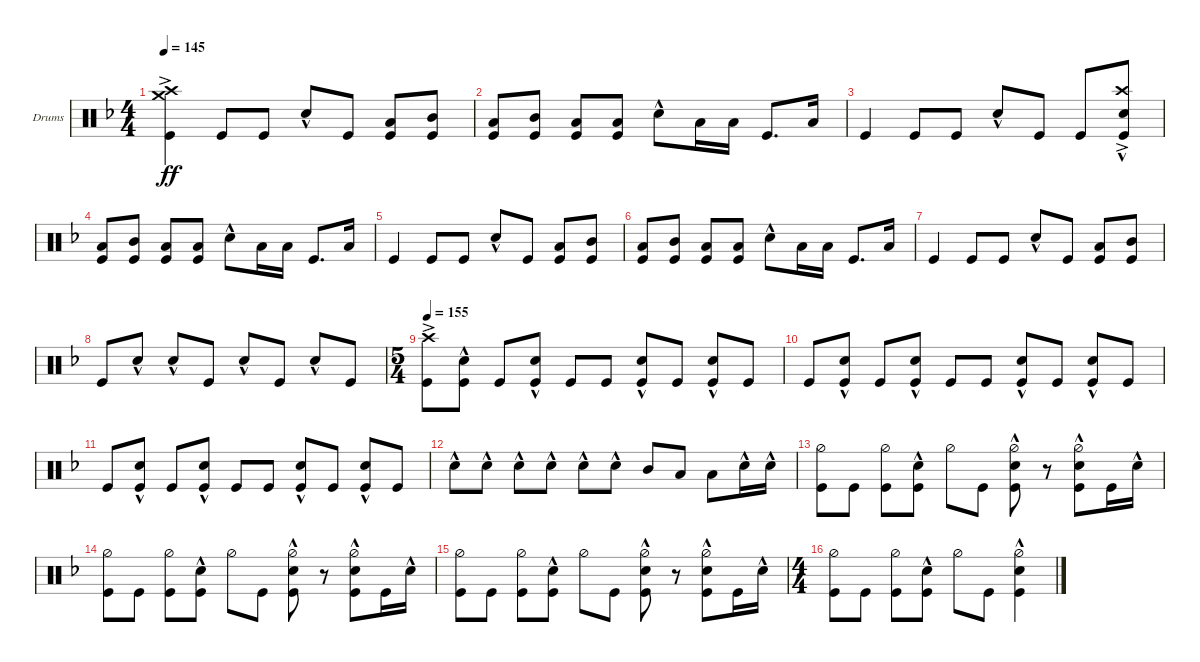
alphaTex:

\defaultSystemsLayout 4
\bracketExtendMode groupsimilarinstruments
\firstSystemTrackNameOrientation horizontal
\otherSystemsTrackNameOrientation horizontal
\track ("Drumkit" "Drums") {instrument percussion}
\staff {score}
\articulation defaults
\ts (4 4)
\section ("" "")
\tempo 145
\clef neutral
\ks f
("Kick (hit)" "Crash high (hit)"{ac} "Crash medium (hit)"{ac}).4{dy ff} "Kick (hit)".8 "Kick (hit)".8 "Snare (hit) 2"{hac}.8 "Kick (hit)".8 ("Kick (hit)" "Low Tom (hit)").8 ("Kick (hit)" "Mid Tom (hit)").8 |
("Kick (hit)" "Low Tom (hit)").8 ("Kick (hit)" "Mid Tom (hit)").8 ("Kick (hit)" "Low Tom (hit)").8 ("Kick (hit)" "Low Tom (hit)").8 "Snare (hit) 2"{hac}.8 "Low Tom (hit)".16 "Low Tom (hit)".16 "Kick (hit)".8{d} "Low Tom (hit)".16 |
"Kick (hit)".4 "Kick (hit)".8 "Kick (hit)".8 "Snare (hit) 2"{hac}.8 "Kick (hit)".8 "Kick (hit)".8 ("Kick (hit)" "Crash high (hit)"{ac} "Snare (hit) 2"{hac}).8 |
("Kick (hit)" "Low Tom (hit)").8 ("Kick (hit)" "Mid Tom (hit)").8 ("Kick (hit)" "Low Tom (hit)").8 ("Kick (hit)" "Low Tom (hit)").8 "Snare (hit) 2"{hac}.8 "Low Tom (hit)".16 "Low Tom (hit)".16 "Kick (hit)".8{d} "Low Tom (hit)".16 |
"Kick (hit)".4 "Kick (hit)".8 "Kick (hit)".8 "Snare (hit) 2"{hac}.8 "Kick (hit)".8 ("Kick (hit)" "Low Tom (hit)").8 ("Kick (hit)" "Mid Tom (hit)").8 |
("Kick (hit)" "Low Tom (hit)").8 ("Kick (hit)" "Mid Tom (hit)").8 ("Kick (hit)" "Low Tom (hit)").8 ("Kick (hit)" "Low Tom (hit)").8 "Snare (hit) 2"{hac}.8 "Low Tom (hit)".16 "Low Tom (hit)".16 "Kick (hit)".8{d} "Low Tom (hit)".16 |
"Kick (hit)".4 "Kick (hit)".8 "Kick (hit)".8 "Snare (hit) 2"{hac}.8 "Kick (hit)".8 ("Kick (hit)" "Low Tom (hit)").8 ("Kick (hit)" "Mid Tom (hit)").8 |
"Kick (hit)".8 "Snare (hit) 2"{hac}.8 "Snare (hit) 2"{hac}.8 "Kick (hit)".8 "Snare (hit) 2"{hac}.8 "Kick (hit)".8 "Snare (hit) 2"{hac}.8 "Kick (hit)".8 |
\ts (5 4)
\tempo 155
("Kick (hit)" "Crash high (hit)"{ac}).8 ("Kick (hit)" "Snare (hit) 2"{hac}).8 "Kick (hit)".8 ("Kick (hit)" "Snare (hit) 2"{hac}).8 "Kick (hit)".8 "Kick (hit)".8 ("Kick (hit)" "Snare (hit) 2"{hac}).8 "Kick (hit)".8 ("Kick (hit)" "Snare (hit) 2"{hac}).8 "Kick (hit)".8 |
"Kick (hit)".8 ("Kick (hit)" "Snare (hit) 2"{hac}).8 "Kick (hit)".8 ("Kick (hit)" "Snare (hit) 2"{hac}).8 "Kick (hit)".8 "Kick (hit)".8 ("Kick (hit)" "Snare (hit) 2"{hac}).8 "Kick (hit)".8 ("Kick (hit)" "Snare (hit) 2"{hac}).8 "Kick (hit)".8 |
"Kick (hit)".8 ("Kick (hit)" "Snare (hit) 2"{hac}).8 "Kick (hit)".8 ("Kick (hit)" "Snare (hit) 2"{hac}).8 "Kick (hit)".8 "Kick (hit)".8 ("Kick (hit)" "Snare (hit) 2"{hac}).8 "Kick (hit)".8 ("Kick (hit)" "Snare (hit) 2"{hac}).8 "Kick (hit)".8 |
"Snare (hit) 2"{hac}.8 "Snare (hit) 2"{hac}.8 "Snare (hit) 2"{hac}.8 "Snare (hit) 2"{hac}.8 "Snare (hit) 2"{hac}.8 "Snare (hit) 2"{hac}.8 "Mid Tom (hit)".8 "Low Tom (hit)".8 "Low Tom (hit)".8 "Snare (hit) 2"{hac}.16 "Snare (hit) 2"{hac}.16 |
("Kick (hit)" "Hi-Hat (half)").8 "Kick (hit)".8 ("Kick (hit)" "Hi-Hat (half)").8 ("Kick (hit)" "Snare (hit) 2"{hac}).8 "Hi-Hat (half)".8 "Kick (hit)".8 ("Kick (hit)" "Snare (hit) 2"{hac} "Hi-Hat (half)").8 r.8 ("Kick (hit)" "Snare (hit) 2"{hac} "Hi-Hat (half)").8 "Kick (hit)".16 "Snare (hit) 2"{hac}.16 |
("Kick (hit)" "Hi-Hat (half)").8 "Kick (hit)".8 ("Kick (hit)" "Hi-Hat (half)").8 ("Kick (hit)" "Snare (hit) 2"{hac}).8 "Hi-Hat (half)".8 "Kick (hit)".8 ("Kick (hit)" "Snare (hit) 2"{hac} "Hi-Hat (half)").8 r.8 ("Kick (hit)" "Snare (hit) 2"{hac} "Hi-Hat (half)").8 "Kick (hit)".16 "Snare (hit) 2"{hac}.16 |
("Kick (hit)" "Hi-Hat (half)").8 "Kick (hit)".8 ("Kick (hit)" "Hi-Hat (half)").8 ("Kick (hit)" "Snare (hit) 2"{hac}).8 "Hi-Hat (half)".8 "Kick (hit)".8 ("Kick (hit)" "Snare (hit) 2"{hac} "Hi-Hat (half)").8 r.8 ("Kick (hit)" "Snare (hit) 2"{hac} "Hi-Hat (half)").8 "Kick (hit)".16 "Snare (hit) 2"{hac}.16 |
\ts (4 4)
("Kick (hit)" "Hi-Hat (half)").8 "Kick (hit)".8 ("Kick (hit)" "Hi-Hat (half)").8 ("Kick (hit)" "Snare (hit) 2"{hac}).8 "Hi-Hat (half)".8 "Kick (hit)".8 ("Kick (hit)" "Snare (hit) 2"{hac} "Hi-Hat (half)").4
